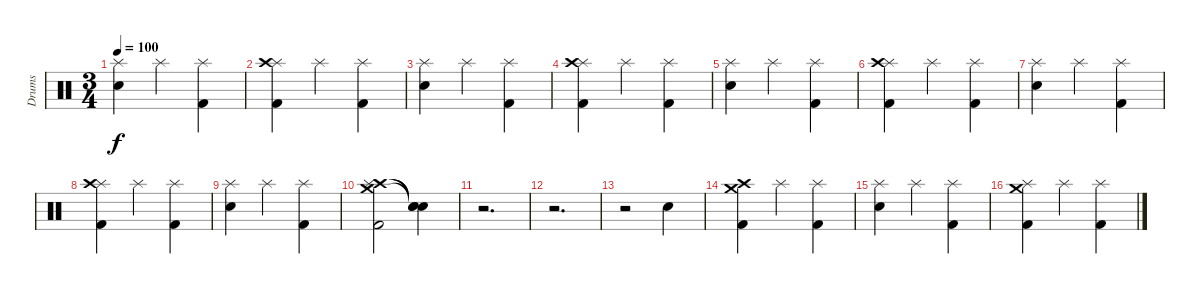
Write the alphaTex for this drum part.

\track ("Drums" "Drums") {instrument percussion}
\staff {score}
\articulation defaults
\ts (3 4)
\tempo 100
\clef neutral
\ks c
("Splash (hit)" "Electric Snare (hit)").4{dy f} "Splash (hit)".4 ("Splash (hit)" "Kick (hit) 2").4 |
("Splash (hit)" "Crash high (hit)" "Kick (hit) 2").4 "Splash (hit)".4 ("Splash (hit)" "Kick (hit) 2").4 |
("Splash (hit)" "Electric Snare (hit)").4 "Splash (hit)".4 ("Splash (hit)" "Kick (hit) 2").4 |
("Splash (hit)" "Crash high (hit)" "Kick (hit) 2").4 "Splash (hit)".4 ("Splash (hit)" "Kick (hit) 2").4 |
("Splash (hit)" "Electric Snare (hit)").4 "Splash (hit)".4 ("Splash (hit)" "Kick (hit) 2").4 |
("Splash (hit)" "Crash high (hit)" "Kick (hit) 2").4 "Splash (hit)".4 ("Splash (hit)" "Kick (hit) 2").4 |
("Splash (hit)" "Electric Snare (hit)").4 "Splash (hit)".4 ("Splash (hit)" "Kick (hit) 2").4 |
("Splash (hit)" "Crash high (hit)" "Kick (hit) 2").4 "Splash (hit)".4 ("Splash (hit)" "Kick (hit) 2").4 |
("Splash (hit)" "Electric Snare (hit)").4 "Splash (hit)".4 ("Splash (hit)" "Kick (hit) 2").4 |
("Crash high (hit)" "Splash (hit)" "Crash medium (hit)" "Kick (hit) 2").2 ("Snare (hit)"{t} "Snare (hit)"{t} "Snare (hit)"{t}).4 |
r.2{d} |
r.2{d} |
r.2 "Electric Snare (hit)".4 |
("Crash high (hit)" "Crash medium (hit)" "Kick (hit) 2").4 "Splash (hit)".4 ("Splash (hit)" "Kick (hit) 2").4 |
("Splash (hit)" "Electric Snare (hit)").4 "Splash (hit)".4 ("Splash (hit)" "Kick (hit) 2").4 |
("Splash (hit)" "Crash medium (hit)" "Kick (hit) 2").4 "Splash (hit)".4 ("Splash (hit)" "Kick (hit) 2").4
